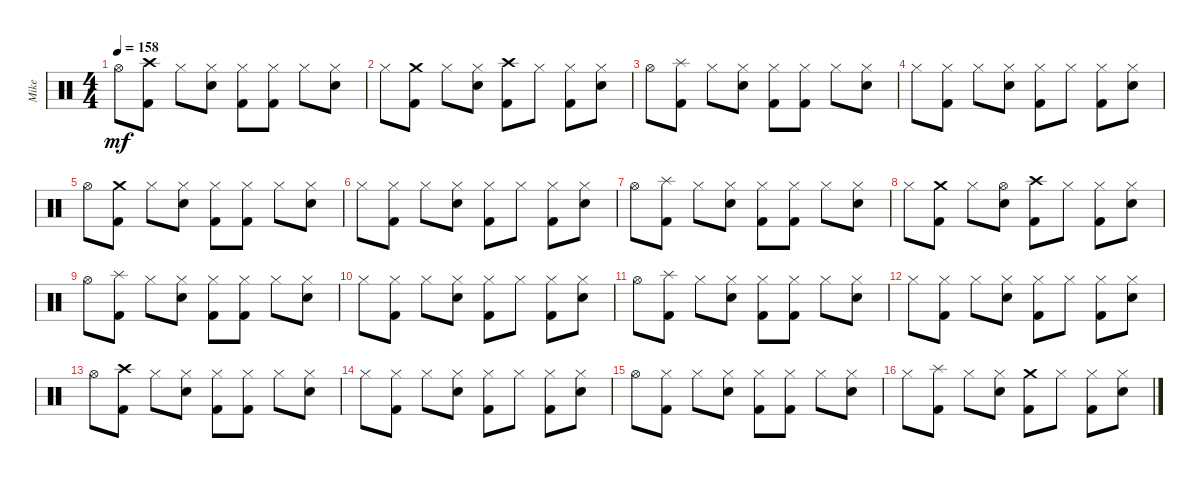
\track ("Mike" "Mike") {instrument percussion}
\staff {score}
\articulation defaults
\ts (4 4)
\tempo 158
\clef neutral
\ks c "Hi-Hat (open)".8{dy mf}
("Crash high (hit)" "Kick (hit) 2").8 "Hi-Hat (closed)".8 ("Hi-Hat (closed)" "Electric Snare (hit)").8 ("Hi-Hat (closed)" "Kick (hit) 2").8 ("Hi-Hat (closed)" "Kick (hit) 2").8 "Hi-Hat (closed)".8 ("Hi-Hat (closed)" "Electric Snare (hit)").8 |
"Hi-Hat (closed)".8 ("Crash medium (hit)" "Kick (hit) 2").8 "Hi-Hat (closed)".8 ("Hi-Hat (closed)" "Electric Snare (hit)").8 ("Crash high (hit)" "Kick (hit) 2").8 "Hi-Hat (closed)".8 ("Hi-Hat (closed)" "Kick (hit) 2").8 ("Hi-Hat (closed)" "Electric Snare (hit)").8 |
"Hi-Hat (open)".8 ("Splash (hit)" "Kick (hit) 2").8 "Hi-Hat (closed)".8 ("Hi-Hat (closed)" "Electric Snare (hit)").8 ("Hi-Hat (closed)" "Kick (hit) 2").8 ("Hi-Hat (closed)" "Kick (hit) 2").8 "Hi-Hat (closed)".8 ("Hi-Hat (closed)" "Electric Snare (hit)").8 |
"Hi-Hat (closed)".8 ("Hi-Hat (closed)" "Kick (hit) 2").8 "Hi-Hat (closed)".8 ("Hi-Hat (closed)" "Electric Snare (hit)").8 ("Hi-Hat (closed)" "Kick (hit) 2").8 "Hi-Hat (closed)".8 ("Hi-Hat (closed)" "Kick (hit) 2").8 ("Hi-Hat (closed)" "Electric Snare (hit)").8 |
"Hi-Hat (open)".8 ("Crash medium (hit)" "Kick (hit) 2").8 "Hi-Hat (closed)".8 ("Hi-Hat (closed)" "Electric Snare (hit)").8 ("Hi-Hat (closed)" "Kick (hit) 2").8 ("Hi-Hat (closed)" "Kick (hit) 2").8 "Hi-Hat (closed)".8 ("Hi-Hat (closed)" "Electric Snare (hit)").8 |
"Hi-Hat (closed)".8 ("Hi-Hat (closed)" "Kick (hit) 2").8 "Hi-Hat (closed)".8 ("Hi-Hat (closed)" "Electric Snare (hit)").8 ("Hi-Hat (closed)" "Kick (hit) 2").8 "Hi-Hat (closed)".8 ("Hi-Hat (closed)" "Kick (hit) 2").8 ("Hi-Hat (closed)" "Electric Snare (hit)").8 |
"Hi-Hat (open)".8 ("Splash (hit)" "Kick (hit) 2").8 "Hi-Hat (closed)".8 ("Hi-Hat (closed)" "Electric Snare (hit)").8 ("Hi-Hat (closed)" "Kick (hit) 2").8 ("Hi-Hat (closed)" "Kick (hit) 2").8 "Hi-Hat (closed)".8 ("Hi-Hat (closed)" "Electric Snare (hit)").8 |
"Hi-Hat (closed)".8 ("Crash medium (hit)" "Kick (hit) 2").8 "Hi-Hat (closed)".8 ("Hi-Hat (open)" "Electric Snare (hit)").8 ("Crash high (hit)" "Kick (hit) 2").8 "Hi-Hat (closed)".8 ("Hi-Hat (closed)" "Kick (hit) 2").8 ("Hi-Hat (closed)" "Electric Snare (hit)").8 |
"Hi-Hat (open)".8 ("Splash (hit)" "Kick (hit) 2").8 "Hi-Hat (closed)".8 ("Hi-Hat (closed)" "Electric Snare (hit)").8 ("Hi-Hat (closed)" "Kick (hit) 2").8 ("Hi-Hat (closed)" "Kick (hit) 2").8 "Hi-Hat (closed)".8 ("Hi-Hat (closed)" "Electric Snare (hit)").8 |
"Hi-Hat (closed)".8 ("Hi-Hat (closed)" "Kick (hit) 2").8 "Hi-Hat (closed)".8 ("Hi-Hat (closed)" "Electric Snare (hit)").8 ("Hi-Hat (closed)" "Kick (hit) 2").8 "Hi-Hat (closed)".8 ("Hi-Hat (closed)" "Kick (hit) 2").8 ("Hi-Hat (closed)" "Electric Snare (hit)").8 |
"Hi-Hat (open)".8 ("Splash (hit)" "Kick (hit) 2").8 "Hi-Hat (closed)".8 ("Hi-Hat (closed)" "Electric Snare (hit)").8 ("Hi-Hat (closed)" "Kick (hit) 2").8 ("Hi-Hat (closed)" "Kick (hit) 2").8 "Hi-Hat (closed)".8 ("Hi-Hat (closed)" "Electric Snare (hit)").8 |
"Hi-Hat (closed)".8 ("Hi-Hat (closed)" "Kick (hit) 2").8 "Hi-Hat (closed)".8 ("Hi-Hat (closed)" "Electric Snare (hit)").8 ("Hi-Hat (closed)" "Kick (hit) 2").8 "Hi-Hat (closed)".8 ("Hi-Hat (closed)" "Kick (hit) 2").8 ("Hi-Hat (closed)" "Electric Snare (hit)").8 |
"Hi-Hat (open)".8 ("Crash high (hit)" "Kick (hit) 2").8 "Hi-Hat (closed)".8 ("Hi-Hat (closed)" "Electric Snare (hit)").8 ("Hi-Hat (closed)" "Kick (hit) 2").8 ("Hi-Hat (closed)" "Kick (hit) 2").8 "Hi-Hat (closed)".8 ("Hi-Hat (closed)" "Electric Snare (hit)").8 |
"Hi-Hat (closed)".8 ("Hi-Hat (closed)" "Kick (hit) 2").8 "Hi-Hat (closed)".8 ("Hi-Hat (closed)" "Electric Snare (hit)").8 ("Hi-Hat (closed)" "Kick (hit) 2").8 "Hi-Hat (closed)".8 ("Hi-Hat (closed)" "Kick (hit) 2").8 ("Hi-Hat (closed)" "Electric Snare (hit)").8 |
"Hi-Hat (open)".8 ("Hi-Hat (closed)" "Kick (hit) 2").8 "Hi-Hat (closed)".8 ("Hi-Hat (closed)" "Electric Snare (hit)").8 ("Hi-Hat (closed)" "Kick (hit) 2").8 ("Hi-Hat (closed)" "Kick (hit) 2").8 "Hi-Hat (closed)".8 ("Hi-Hat (closed)" "Electric Snare (hit)").8 |
"Hi-Hat (closed)".8 ("Splash (hit)" "Kick (hit) 2").8 "Hi-Hat (closed)".8 ("Hi-Hat (closed)" "Electric Snare (hit)").8 ("Crash medium (hit)" "Kick (hit) 2").8 "Hi-Hat (closed)".8 ("Hi-Hat (closed)" "Kick (hit) 2").8 ("Hi-Hat (closed)" "Electric Snare (hit)").8
